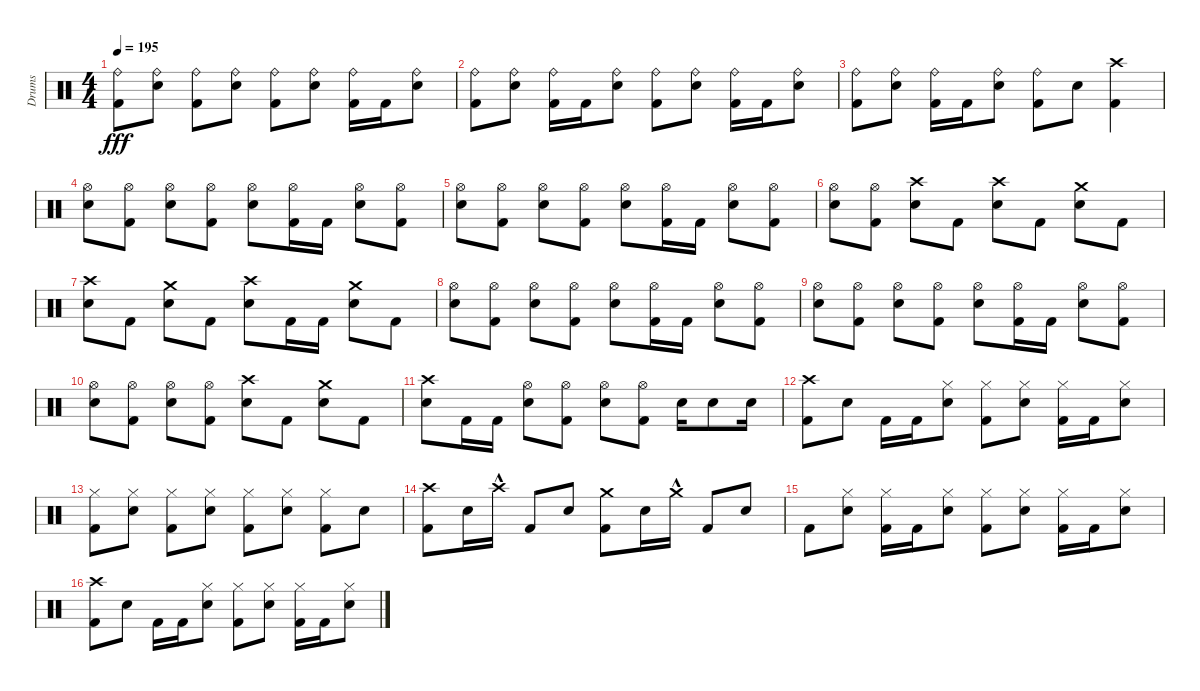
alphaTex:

\track ("Drums" "Drums") {instrument percussion}
\staff {score}
\articulation defaults
\ts (4 4)
\tempo 195
\clef neutral
\ks c
("Kick (hit) 2" "Ride (bell)").8{dy fff} ("Metronome (bell)" "Ride (bell)").8 ("Kick (hit) 2" "Ride (bell)").8 ("Metronome (bell)" "Ride (bell)").8 ("Kick (hit) 2" "Ride (bell)").8 ("Metronome (bell)" "Ride (bell)").8 ("Kick (hit) 2" "Ride (bell)").16 "Kick (hit) 2".16 ("Metronome (bell)" "Ride (bell)").8 |
("Kick (hit) 2" "Ride (bell)").8 ("Metronome (bell)" "Ride (bell)").8 ("Kick (hit) 2" "Ride (bell)").16 "Kick (hit) 2".16 ("Metronome (bell)" "Ride (bell)").8 ("Kick (hit) 2" "Ride (bell)").8 ("Metronome (bell)" "Ride (bell)").8 ("Kick (hit) 2" "Ride (bell)").16 "Kick (hit) 2".16 ("Metronome (bell)" "Ride (bell)").8 |
("Kick (hit) 2" "Ride (bell)").8 ("Metronome (bell)" "Ride (bell)").8 ("Kick (hit) 2" "Ride (bell)").16 "Kick (hit) 2".16 ("Metronome (bell)" "Ride (bell)").8 ("Kick (hit) 2" "Ride (bell)").8 "Metronome (bell)".8 ("Kick (hit) 2" "Crash high (hit)").4 |
("Metronome (bell)" "Hi-Hat (open)").8 ("Kick (hit) 2" "Hi-Hat (open)").8 ("Metronome (bell)" "Hi-Hat (open)").8 ("Kick (hit) 2" "Hi-Hat (open)").8 ("Metronome (bell)" "Hi-Hat (open)").8 ("Kick (hit) 2" "Hi-Hat (open)").16 "Kick (hit) 2".16 ("Metronome (bell)" "Hi-Hat (open)").8 ("Kick (hit) 2" "Hi-Hat (open)").8 |
("Metronome (bell)" "Hi-Hat (open)").8 ("Kick (hit) 2" "Hi-Hat (open)").8 ("Metronome (bell)" "Hi-Hat (open)").8 ("Kick (hit) 2" "Hi-Hat (open)").8 ("Metronome (bell)" "Hi-Hat (open)").8 ("Kick (hit) 2" "Hi-Hat (open)").16 "Kick (hit) 2".16 ("Metronome (bell)" "Hi-Hat (open)").8 ("Kick (hit) 2" "Hi-Hat (open)").8 |
("Metronome (bell)" "Hi-Hat (open)").8 ("Kick (hit) 2" "Hi-Hat (open)").8 ("Metronome (bell)" "Crash high (hit)").8 "Kick (hit) 2".8 ("Metronome (bell)" "Crash high (hit)").8 "Kick (hit) 2".8 ("Metronome (bell)" "Crash medium (hit)").8 "Kick (hit) 2".8 |
("Metronome (bell)" "Crash high (hit)").8 "Kick (hit) 2".8 ("Metronome (bell)" "Crash medium (hit)").8 "Kick (hit) 2".8 ("Metronome (bell)" "Crash high (hit)").8 "Kick (hit) 2".16 "Kick (hit) 2".16 ("Metronome (bell)" "Crash medium (hit)").8 "Kick (hit) 2".8 |
("Metronome (bell)" "Hi-Hat (open)").8 ("Kick (hit) 2" "Hi-Hat (open)").8 ("Metronome (bell)" "Hi-Hat (open)").8 ("Kick (hit) 2" "Hi-Hat (open)").8 ("Metronome (bell)" "Hi-Hat (open)").8 ("Kick (hit) 2" "Hi-Hat (open)").16 "Kick (hit) 2".16 ("Metronome (bell)" "Hi-Hat (open)").8 ("Kick (hit) 2" "Hi-Hat (open)").8 |
("Metronome (bell)" "Hi-Hat (open)").8 ("Kick (hit) 2" "Hi-Hat (open)").8 ("Metronome (bell)" "Hi-Hat (open)").8 ("Kick (hit) 2" "Hi-Hat (open)").8 ("Metronome (bell)" "Hi-Hat (open)").8 ("Kick (hit) 2" "Hi-Hat (open)").16 "Kick (hit) 2".16 ("Metronome (bell)" "Hi-Hat (open)").8 ("Kick (hit) 2" "Hi-Hat (open)").8 |
("Metronome (bell)" "Hi-Hat (open)").8 ("Kick (hit) 2" "Hi-Hat (open)").8 ("Metronome (bell)" "Hi-Hat (open)").8 ("Kick (hit) 2" "Hi-Hat (open)").8 ("Metronome (bell)" "Crash high (hit)").8 "Kick (hit) 2".8 ("Metronome (bell)" "Crash medium (hit)").8 "Kick (hit) 2".8 |
("Metronome (bell)" "Crash high (hit)").8 "Kick (hit) 2".16 "Kick (hit) 2".16 ("Metronome (bell)" "Hi-Hat (open)").8 ("Kick (hit) 2" "Hi-Hat (open)").8 ("Metronome (bell)" "Hi-Hat (open)").8 ("Kick (hit) 2" "Hi-Hat (open)").8 "Metronome (bell)".16 "Metronome (bell)".8 "Metronome (bell)".16 |
("Kick (hit) 2" "Crash high (hit)").8 "Metronome (bell)".8 "Kick (hit) 2".16 "Kick (hit) 2".16 ("Metronome (bell)" "Hi-Hat (closed)").8 ("Kick (hit) 2" "Hi-Hat (closed)").8 ("Metronome (bell)" "Hi-Hat (closed)").8 ("Kick (hit) 2" "Hi-Hat (closed)").16 "Kick (hit) 2".16 ("Metronome (bell)" "Hi-Hat (closed)").8 |
("Kick (hit) 2" "Hi-Hat (closed)").8 ("Metronome (bell)" "Hi-Hat (closed)").8 ("Kick (hit) 2" "Hi-Hat (closed)").8 ("Metronome (bell)" "Hi-Hat (closed)").8 ("Kick (hit) 2" "Hi-Hat (closed)").8 ("Metronome (bell)" "Hi-Hat (closed)").8 ("Kick (hit) 2" "Hi-Hat (closed)").8 "Metronome (bell)".8 |
("Kick (hit) 2" "Crash high (hit)").8 "Metronome (bell)".16 "Crash high (hit)"{hac}.16 "Kick (hit) 2".8 "Metronome (bell)".8 ("Kick (hit) 2" "Crash medium (hit)").8 "Metronome (bell)".16 "Crash medium (hit)"{hac}.16 "Kick (hit) 2".8 "Metronome (bell)".8 |
"Kick (hit) 2".8 ("Metronome (bell)" "Hi-Hat (closed)").8 ("Kick (hit) 2" "Hi-Hat (closed)").16 "Kick (hit) 2".16 ("Metronome (bell)" "Hi-Hat (closed)").8 ("Kick (hit) 2" "Hi-Hat (closed)").8 ("Metronome (bell)" "Hi-Hat (closed)").8 ("Kick (hit) 2" "Hi-Hat (closed)").16 "Kick (hit) 2".16 ("Metronome (bell)" "Hi-Hat (closed)").8 |
("Kick (hit) 2" "Crash high (hit)").8 "Metronome (bell)".8 "Kick (hit) 2".16 "Kick (hit) 2".16 ("Metronome (bell)" "Hi-Hat (closed)").8 ("Kick (hit) 2" "Hi-Hat (closed)").8 ("Metronome (bell)" "Hi-Hat (closed)").8 ("Kick (hit) 2" "Hi-Hat (closed)").16 "Kick (hit) 2".16 ("Metronome (bell)" "Hi-Hat (closed)").8
